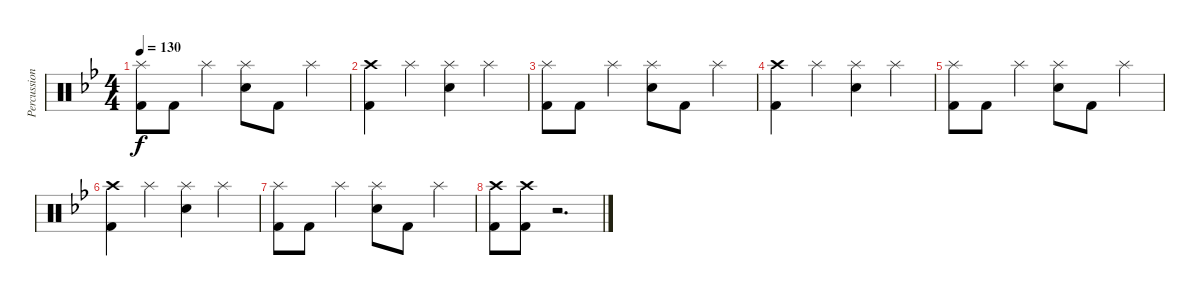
\track ("Percussions" "Percussion") {instrument percussion}
\staff {score}
\articulation defaults
\ts (4 4)
\tempo 130
\clef neutral
\ks gminor
("Splash (hit)" "Kick (hit) 2").8{dy f} "Kick (hit) 2".8 "Splash (hit)".4 ("Splash (hit)" "Electric Snare (hit)").8 "Kick (hit) 2".8 "Splash (hit)".4 |
("Crash high (hit)" "Kick (hit) 2").4 "Splash (hit)".4 ("Splash (hit)" "Electric Snare (hit)").4 "Splash (hit)".4 |
("Splash (hit)" "Kick (hit) 2").8 "Kick (hit) 2".8 "Splash (hit)".4 ("Splash (hit)" "Electric Snare (hit)").8 "Kick (hit) 2".8 "Splash (hit)".4 |
("Crash high (hit)" "Kick (hit) 2").4 "Splash (hit)".4 ("Splash (hit)" "Electric Snare (hit)").4 "Splash (hit)".4 |
("Splash (hit)" "Kick (hit) 2").8 "Kick (hit) 2".8 "Splash (hit)".4 ("Splash (hit)" "Electric Snare (hit)").8 "Kick (hit) 2".8 "Splash (hit)".4 |
("Crash high (hit)" "Kick (hit) 2").4 "Splash (hit)".4 ("Splash (hit)" "Electric Snare (hit)").4 "Splash (hit)".4 |
("Splash (hit)" "Kick (hit) 2").8 "Kick (hit) 2".8 "Splash (hit)".4 ("Splash (hit)" "Electric Snare (hit)").8 "Kick (hit) 2".8 "Splash (hit)".4 |
("Crash high (hit)" "Kick (hit) 2").8 ("Crash high (hit)" "Kick (hit) 2").8 r.2{d}
